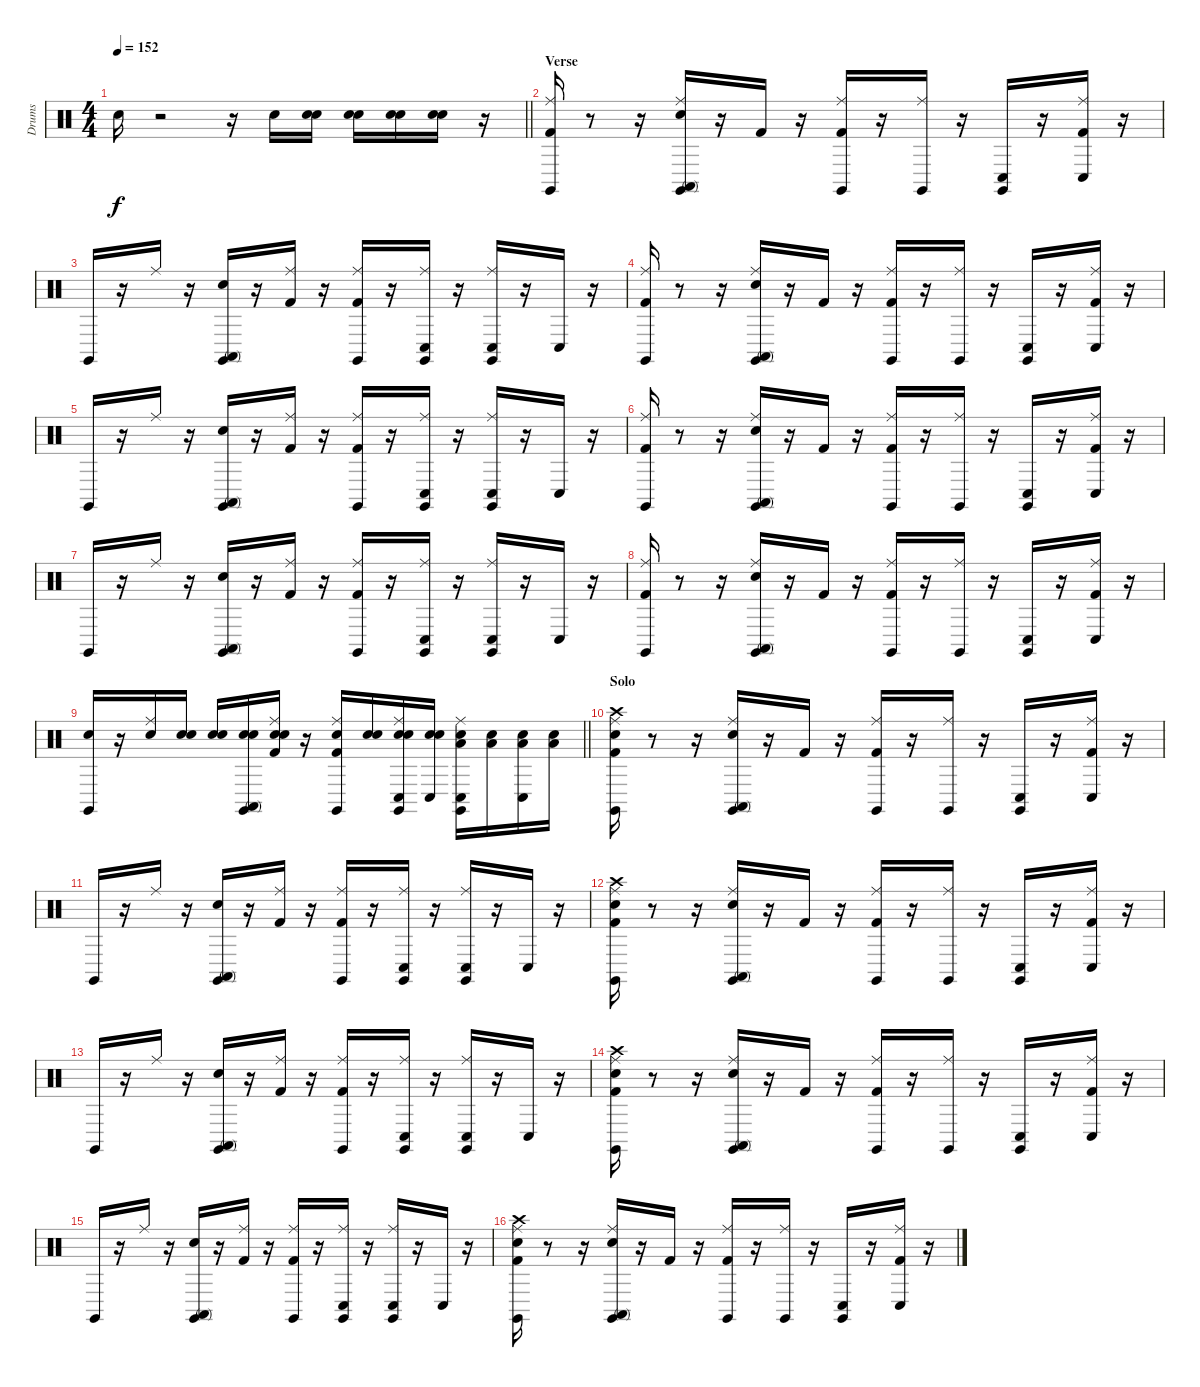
\track ("Drums" "Drums") {instrument percussion}
\staff {score}
\articulation defaults
\ts (4 4)
\tempo 152
\clef neutral
\barLineRight lightlight
\ks c "Snare (hit) 2".16{dy f}
r.2 r.16 "Snare (hit) 2".16 ("Snare (hit)" "Snare (hit) 2").16 ("Snare (hit)" "Snare (hit) 2").16 ("Snare (hit)" "Snare (hit) 2").16 ("Snare (hit)" "Snare (hit) 2").16 r.16 |
\section ("" "Verse")
("Kick (hit) 2" "Ride (middle)" "Claves (hit)").16 r.8 r.16 ("Snare (hit) 2" "Ride (middle)" "Conga high (mute)" "Claves (hit)").16 r.16 "Kick (hit) 2".16 r.16 ("Kick (hit) 2" "Ride (middle)" "Claves (hit)").16 r.16 ("Ride (middle)" "Claves (hit)").16 r.16 ("Conga low (hit)" "Claves (hit)").16 r.16 ("Kick (hit) 2" "Ride (middle)" "Conga low (hit)").16 r.16 |
"Claves (hit)".16 r.16 "Ride (middle)".16 r.16 ("Snare (hit) 2" "Conga high (mute)" "Claves (hit)").16 r.16 ("Kick (hit) 2" "Ride (middle)").16 r.16 ("Kick (hit) 2" "Ride (middle)" "Claves (hit)").16 r.16 ("Ride (middle)" "Conga low (hit)" "Claves (hit)").16 r.16 ("Ride (middle)" "Conga low (hit)" "Claves (hit)").16 r.16 "Conga low (hit)".16 r.16 |
("Kick (hit) 2" "Ride (middle)" "Claves (hit)").16 r.8 r.16 ("Snare (hit) 2" "Ride (middle)" "Conga high (mute)" "Claves (hit)").16 r.16 "Kick (hit) 2".16 r.16 ("Kick (hit) 2" "Ride (middle)" "Claves (hit)").16 r.16 ("Ride (middle)" "Claves (hit)").16 r.16 ("Conga low (hit)" "Claves (hit)").16 r.16 ("Kick (hit) 2" "Ride (middle)" "Conga low (hit)").16 r.16 |
"Claves (hit)".16 r.16 "Ride (middle)".16 r.16 ("Snare (hit) 2" "Conga high (mute)" "Claves (hit)").16 r.16 ("Kick (hit) 2" "Ride (middle)").16 r.16 ("Kick (hit) 2" "Ride (middle)" "Claves (hit)").16 r.16 ("Ride (middle)" "Conga low (hit)" "Claves (hit)").16 r.16 ("Ride (middle)" "Conga low (hit)" "Claves (hit)").16 r.16 "Conga low (hit)".16 r.16 |
("Kick (hit) 2" "Ride (middle)" "Claves (hit)").16 r.8 r.16 ("Snare (hit) 2" "Ride (middle)" "Conga high (mute)" "Claves (hit)").16 r.16 "Kick (hit) 2".16 r.16 ("Kick (hit) 2" "Ride (middle)" "Claves (hit)").16 r.16 ("Ride (middle)" "Claves (hit)").16 r.16 ("Conga low (hit)" "Claves (hit)").16 r.16 ("Kick (hit) 2" "Ride (middle)" "Conga low (hit)").16 r.16 |
"Claves (hit)".16 r.16 "Ride (middle)".16 r.16 ("Snare (hit) 2" "Conga high (mute)" "Claves (hit)").16 r.16 ("Kick (hit) 2" "Ride (middle)").16 r.16 ("Kick (hit) 2" "Ride (middle)" "Claves (hit)").16 r.16 ("Ride (middle)" "Conga low (hit)" "Claves (hit)").16 r.16 ("Ride (middle)" "Conga low (hit)" "Claves (hit)").16 r.16 "Conga low (hit)".16 r.16 |
("Kick (hit) 2" "Ride (middle)" "Claves (hit)").16 r.8 r.16 ("Snare (hit) 2" "Ride (middle)" "Conga high (mute)" "Claves (hit)").16 r.16 "Kick (hit) 2".16 r.16 ("Kick (hit) 2" "Ride (middle)" "Claves (hit)").16 r.16 ("Ride (middle)" "Claves (hit)").16 r.16 ("Conga low (hit)" "Claves (hit)").16 r.16 ("Kick (hit) 2" "Ride (middle)" "Conga low (hit)").16 r.16 |
\barLineRight lightlight
("Snare (hit) 2" "Claves (hit)").16 r.16 ("Ride (middle)" "Snare (hit) 2").16 ("Snare (hit)" "Snare (hit) 2").16 ("Snare (hit)" "Snare (hit) 2").16 ("Snare (hit)" "Snare (hit) 2" "Conga high (mute)" "Claves (hit)").16 ("Snare (hit)" "Snare (hit) 2" "Kick (hit) 2" "Ride (middle)").16 r.16 ("Kick (hit) 2" "Snare (hit) 2" "Ride (middle)" "Claves (hit)").16 ("Snare (hit)" "Snare (hit) 2").16 ("Snare (hit)" "Snare (hit) 2" "Ride (middle)" "Conga low (hit)" "Claves (hit)").16 ("Snare (hit)" "Snare (hit) 2" "Conga low (hit)").16 ("Snare (hit)" "Low Tom (hit)" "Ride (middle)" "Conga low (hit)" "Claves (hit)").16 ("Snare (hit)" "Low Tom (hit)").16 ("Snare (hit)" "Low Floor Tom (hit)" "Conga low (hit)").16 ("Snare (hit)" "Low Floor Tom (hit)").16 |
\section ("" "Solo")
("Snare (hit)" "Kick (hit) 2" "Crash high (hit)" "Ride (middle)" "Claves (hit)").16{volume 10} r.8 r.16 ("Snare (hit) 2" "Ride (middle)" "Conga high (mute)" "Claves (hit)").16 r.16 "Kick (hit) 2".16 r.16 ("Kick (hit) 2" "Ride (middle)" "Claves (hit)").16 r.16 ("Ride (middle)" "Claves (hit)").16 r.16 ("Conga low (hit)" "Claves (hit)").16 r.16 ("Kick (hit) 2" "Ride (middle)" "Conga low (hit)").16 r.16 |
"Claves (hit)".16 r.16 "Ride (middle)".16 r.16 ("Snare (hit) 2" "Conga high (mute)" "Claves (hit)").16 r.16 ("Kick (hit) 2" "Ride (middle)").16 r.16 ("Kick (hit) 2" "Ride (middle)" "Claves (hit)").16 r.16 ("Ride (middle)" "Conga low (hit)" "Claves (hit)").16 r.16 ("Ride (middle)" "Conga low (hit)" "Claves (hit)").16 r.16 "Conga low (hit)".16 r.16 |
("Snare (hit)" "Kick (hit) 2" "Crash high (hit)" "Ride (middle)" "Claves (hit)").16 r.8 r.16 ("Snare (hit) 2" "Ride (middle)" "Conga high (mute)" "Claves (hit)").16 r.16 "Kick (hit) 2".16 r.16 ("Kick (hit) 2" "Ride (middle)" "Claves (hit)").16 r.16 ("Ride (middle)" "Claves (hit)").16 r.16 ("Conga low (hit)" "Claves (hit)").16 r.16 ("Kick (hit) 2" "Ride (middle)" "Conga low (hit)").16 r.16 |
"Claves (hit)".16 r.16 "Ride (middle)".16 r.16 ("Snare (hit) 2" "Conga high (mute)" "Claves (hit)").16 r.16 ("Kick (hit) 2" "Ride (middle)").16 r.16 ("Kick (hit) 2" "Ride (middle)" "Claves (hit)").16 r.16 ("Ride (middle)" "Conga low (hit)" "Claves (hit)").16 r.16 ("Ride (middle)" "Conga low (hit)" "Claves (hit)").16 r.16 "Conga low (hit)".16 r.16 |
("Snare (hit)" "Kick (hit) 2" "Crash high (hit)" "Ride (middle)" "Claves (hit)").16 r.8 r.16 ("Snare (hit) 2" "Ride (middle)" "Conga high (mute)" "Claves (hit)").16 r.16 "Kick (hit) 2".16 r.16 ("Kick (hit) 2" "Ride (middle)" "Claves (hit)").16 r.16 ("Ride (middle)" "Claves (hit)").16 r.16 ("Conga low (hit)" "Claves (hit)").16 r.16 ("Kick (hit) 2" "Ride (middle)" "Conga low (hit)").16 r.16 |
"Claves (hit)".16 r.16 "Ride (middle)".16 r.16 ("Snare (hit) 2" "Conga high (mute)" "Claves (hit)").16 r.16 ("Kick (hit) 2" "Ride (middle)").16 r.16 ("Kick (hit) 2" "Ride (middle)" "Claves (hit)").16 r.16 ("Ride (middle)" "Conga low (hit)" "Claves (hit)").16 r.16 ("Ride (middle)" "Conga low (hit)" "Claves (hit)").16 r.16 "Conga low (hit)".16 r.16 |
("Snare (hit)" "Kick (hit) 2" "Crash high (hit)" "Ride (middle)" "Claves (hit)").16 r.8 r.16 ("Snare (hit) 2" "Ride (middle)" "Conga high (mute)" "Claves (hit)").16 r.16 "Kick (hit) 2".16 r.16 ("Kick (hit) 2" "Ride (middle)" "Claves (hit)").16 r.16 ("Ride (middle)" "Claves (hit)").16 r.16 ("Conga low (hit)" "Claves (hit)").16 r.16 ("Kick (hit) 2" "Ride (middle)" "Conga low (hit)").16 r.16
